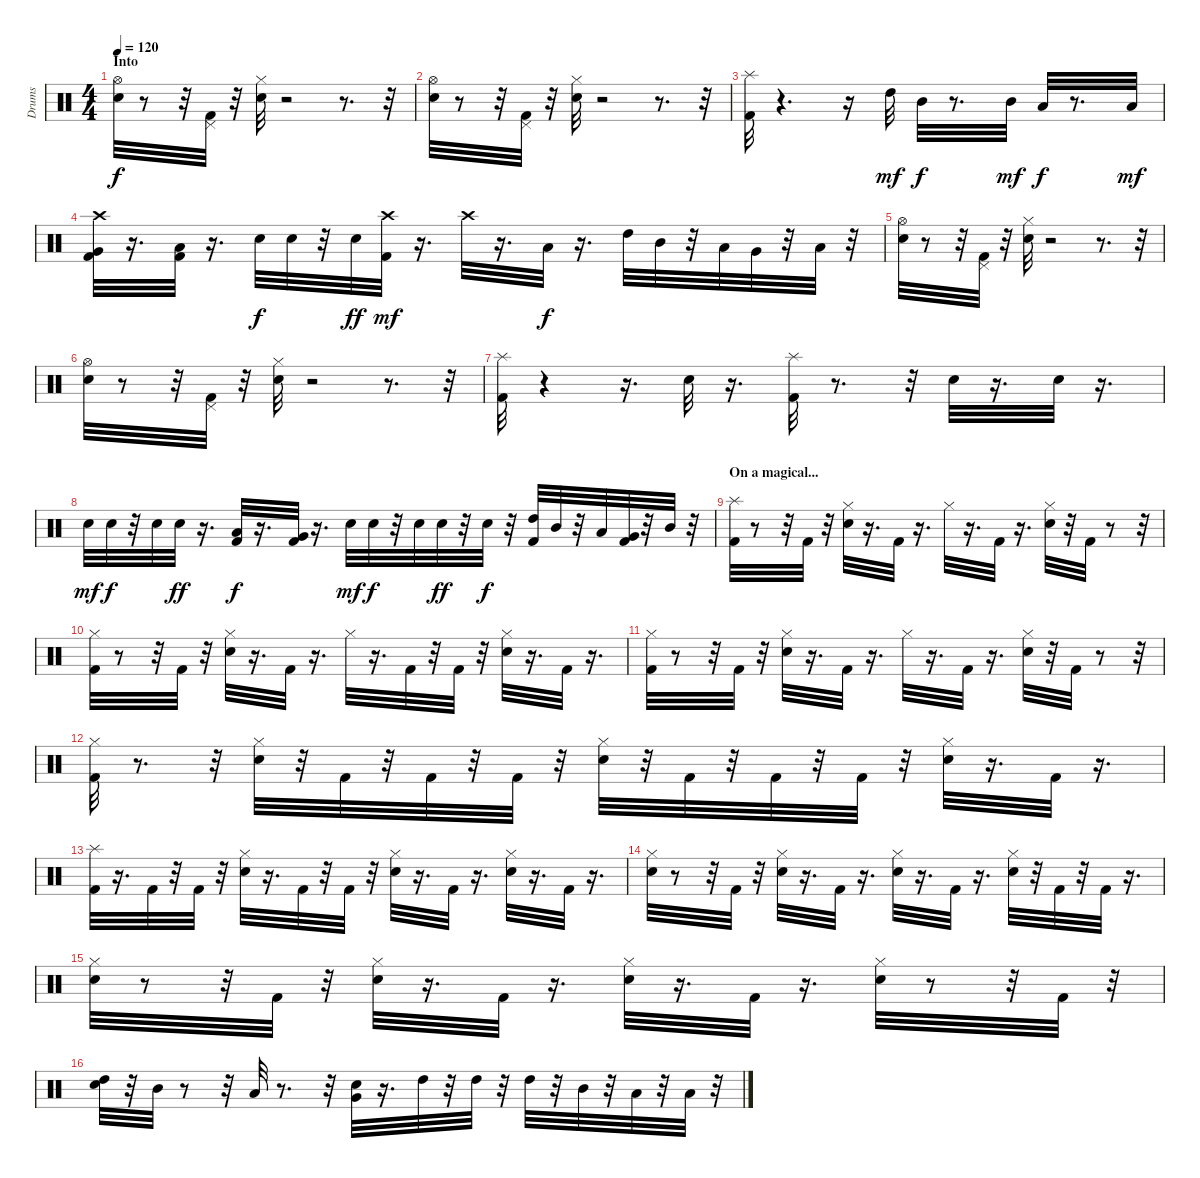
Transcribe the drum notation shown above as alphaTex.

\track ("Drums" "Drums") {instrument percussion}
\staff {score}
\articulation defaults
\ts (4 4)
\section ("" "Into")
\tempo 120
\clef neutral
\ks c
("Snare (hit) 2" "Hi-Hat (open)").32{dy f} r.8 r.32 ("Kick (hit) 2" "Pedal Hi-Hat (hit)").32 r.32 ("Snare (hit) 2" "Hi-Hat (closed)").32 r.2 r.8{d} r.32 |
("Snare (hit) 2" "Hi-Hat (open)").32 r.8 r.32 ("Kick (hit) 2" "Pedal Hi-Hat (hit)").32 r.32 ("Snare (hit) 2" "Hi-Hat (closed)").32 r.2 r.8{d} r.32 |
("Kick (hit) 2" "Splash (hit)").32 r.4{d} r.16 "High Tom (hit)".32{dy mf} "Mid Tom (hit)".32{dy f} r.8{d} "Mid Tom (hit)".32{dy mf} "Low Tom (hit)".32{dy f} r.8{d} "Low Tom (hit)".32{dy mf} |
("Kick (hit) 2" "Very Low Tom (hit)" "Crash high (hit)").32 r.16{d} ("Kick (hit) 2" "Low Tom (hit)").32 r.16{d} "Snare (hit) 2".32{dy f} "Snare (hit) 2".32 r.32 "Snare (hit) 2".32{dy ff} ("Kick (hit) 2" "Crash high (hit)").32{dy mf} r.16{d} "Crash high (hit)".32 r.16{d} "Low Tom (hit)".32{dy f} r.16{d} "High Tom (hit)".32 "Mid Tom (hit)".32 r.32 "Low Tom (hit)".32 "Very Low Tom (hit)".32 r.32 "Low Floor Tom (hit)".32 r.32 |
("Snare (hit) 2" "Hi-Hat (open)").32 r.8 r.32 ("Kick (hit) 2" "Pedal Hi-Hat (hit)").32 r.32 ("Snare (hit) 2" "Hi-Hat (closed)").32 r.2 r.8{d} r.32 |
("Snare (hit) 2" "Hi-Hat (open)").32 r.8 r.32 ("Kick (hit) 2" "Pedal Hi-Hat (hit)").32 r.32 ("Snare (hit) 2" "Hi-Hat (closed)").32 r.2 r.8{d} r.32 |
("Kick (hit) 2" "Splash (hit)").32 r.4 r.16{d} "Snare (hit) 2".32 r.16{d} ("Kick (hit) 2" "Splash (hit)").32 r.8{d} r.32 "Snare (hit) 2".32 r.16{d} "Snare (hit) 2".32 r.16{d} |
"Snare (hit) 2".32{dy mf} "Snare (hit) 2".32{dy f} r.32 "Snare (hit) 2".32 "Snare (hit) 2".32{dy ff} r.16{d} ("Kick (hit) 2" "Low Tom (hit)").32{dy f} r.16{d} ("Kick (hit) 2" "Very Low Tom (hit)").32 r.16{d} "Snare (hit) 2".32{dy mf} "Snare (hit) 2".32{dy f} r.32 "Snare (hit) 2".32 "Snare (hit) 2".32{dy ff} r.32 "Snare (hit) 2".32{dy f} r.32 ("Kick (hit) 2" "High Tom (hit)").32 "Mid Tom (hit)".32 r.32 "Low Tom (hit)".32 ("Kick (hit) 2" "Very Low Tom (hit)").32 r.32 "Mid Tom (hit)".32 r.32 |
\section ("" "On a magical...")
("Kick (hit) 2" "Splash (hit)").32 r.8 r.32 "Kick (hit) 2".32 r.32 ("Snare (hit) 2" "Hi-Hat (closed)").32 r.16{d} "Kick (hit) 2".32 r.16{d} "Hi-Hat (closed)".32 r.16{d} "Kick (hit) 2".32 r.16{d} ("Snare (hit) 2" "Hi-Hat (closed)").32 r.32 "Kick (hit) 2".32 r.8 r.32 |
("Kick (hit) 2" "Hi-Hat (closed)").32 r.8 r.32 "Kick (hit) 2".32 r.32 ("Snare (hit) 2" "Hi-Hat (closed)").32 r.16{d} "Kick (hit) 2".32 r.16{d} "Hi-Hat (closed)".32 r.16{d} "Kick (hit) 2".32 r.32 "Kick (hit) 2".32 r.32 ("Snare (hit) 2" "Hi-Hat (closed)").32 r.16{d} "Kick (hit) 2".32 r.16{d} |
("Kick (hit) 2" "Hi-Hat (closed)").32 r.8 r.32 "Kick (hit) 2".32 r.32 ("Snare (hit) 2" "Hi-Hat (closed)").32 r.16{d} "Kick (hit) 2".32 r.16{d} "Hi-Hat (closed)".32 r.16{d} "Kick (hit) 2".32 r.16{d} ("Snare (hit) 2" "Hi-Hat (closed)").32 r.32 "Kick (hit) 2".32 r.8 r.32 |
("Kick (hit) 2" "Hi-Hat (closed)").32 r.8{d} r.32 ("Snare (hit) 2" "Hi-Hat (closed)").32 r.32 "Kick (hit) 2".32 r.32 "Kick (hit) 2".32 r.32 "Kick (hit) 2".32 r.32 ("Snare (hit) 2" "Hi-Hat (closed)").32 r.32 "Kick (hit) 2".32 r.32 "Kick (hit) 2".32 r.32 "Kick (hit) 2".32 r.32 ("Snare (hit) 2" "Hi-Hat (closed)").32 r.16{d} "Kick (hit) 2".32 r.16{d} |
("Kick (hit) 2" "Splash (hit)").32 r.16{d} "Kick (hit) 2".32 r.32 "Kick (hit) 2".32 r.32 ("Snare (hit) 2" "Hi-Hat (closed)").32 r.16{d} "Kick (hit) 2".32 r.32 "Kick (hit) 2".32 r.32 ("Snare (hit) 2" "Hi-Hat (closed)").32 r.16{d} "Kick (hit) 2".32 r.16{d} ("Snare (hit) 2" "Hi-Hat (closed)").32 r.16{d} "Kick (hit) 2".32 r.16{d} |
("Snare (hit) 2" "Hi-Hat (closed)").32 r.8 r.32 "Kick (hit) 2".32 r.32 ("Snare (hit) 2" "Hi-Hat (closed)").32 r.16{d} "Kick (hit) 2".32 r.16{d} ("Snare (hit) 2" "Hi-Hat (closed)").32 r.16{d} "Kick (hit) 2".32 r.16{d} ("Snare (hit) 2" "Hi-Hat (closed)").32 r.32 "Kick (hit) 2".32 r.32 "Kick (hit) 2".32 r.16{d} |
("Snare (hit) 2" "Hi-Hat (closed)").32 r.8 r.32 "Kick (hit) 2".32 r.32 ("Snare (hit) 2" "Hi-Hat (closed)").32 r.16{d} "Kick (hit) 2".32 r.16{d} ("Snare (hit) 2" "Hi-Hat (closed)").32 r.16{d} "Kick (hit) 2".32 r.16{d} ("Snare (hit) 2" "Hi-Hat (closed)").32 r.8 r.32 "Kick (hit) 2".32 r.32 |
("Snare (hit) 2" "High Tom (hit)").32 r.32 "Mid Tom (hit)".32 r.8 r.32 "Low Tom (hit)".32 r.8{d} r.32 ("Snare (hit) 2" "Very Low Tom (hit)").32 r.16{d} "High Tom (hit)".32 r.32 "High Tom (hit)".32 r.32 "High Tom (hit)".32 r.32 "Mid Tom (hit)".32 r.32 "Low Tom (hit)".32 r.32 "Low Floor Tom (hit)".32 r.32
